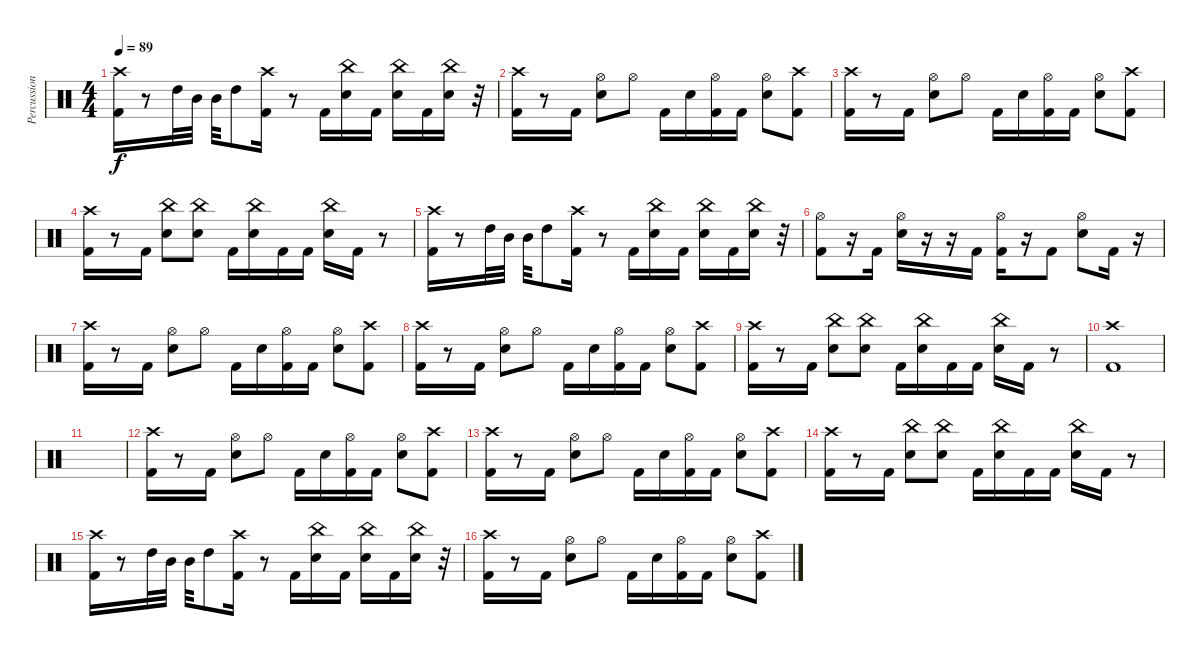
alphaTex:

\track ("Percussion" "Percussion") {instrument percussion}
\staff {score}
\articulation defaults
\ts (4 4)
\tempo 89
\clef neutral
\ks c
("Crash high (hit)" "Kick (hit) 2").16{dy f} r.8 "High Tom (hit)".32 "Mid Tom (hit)".32 "Mid Tom (hit)".32 "High Tom (hit)".8 ("Crash high (hit)" "Kick (hit) 2").16 r.8 "Kick (hit) 2".16 ("China (hit)" "Electric Snare (hit)").16 "Kick (hit) 2".16 ("China (hit)" "Electric Snare (hit)").16 "Kick (hit) 2".16 ("China (hit)" "Electric Snare (hit)").16 r.32 |
("Crash high (hit)" "Kick (hit) 2").16 r.8 "Kick (hit) 2".16 ("Hi-Hat (open)" "Electric Snare (hit)").8 "Hi-Hat (open)".8 "Kick (hit) 2".16 "Electric Snare (hit)".16 ("Hi-Hat (open)" "Kick (hit) 2").16 "Kick (hit) 2".16 ("Hi-Hat (open)" "Electric Snare (hit)").8 ("Crash high (hit)" "Kick (hit) 2").8 |
("Crash high (hit)" "Kick (hit) 2").16 r.8 "Kick (hit) 2".16 ("Hi-Hat (open)" "Electric Snare (hit)").8 "Hi-Hat (open)".8 "Kick (hit) 2".16 "Electric Snare (hit)".16 ("Hi-Hat (open)" "Kick (hit) 2").16 "Kick (hit) 2".16 ("Hi-Hat (open)" "Electric Snare (hit)").8 ("Crash high (hit)" "Kick (hit) 2").8 |
("Crash high (hit)" "Kick (hit) 2").16 r.8 "Kick (hit) 2".16 ("China (hit)" "Electric Snare (hit)").8 ("China (hit)" "Electric Snare (hit)").8 "Kick (hit) 2".16 ("China (hit)" "Electric Snare (hit)").16 "Kick (hit) 2".16 "Kick (hit) 2".16 ("China (hit)" "Electric Snare (hit)").16 "Kick (hit) 2".16 r.8 |
("Crash high (hit)" "Kick (hit) 2").16 r.8 "High Tom (hit)".32 "Mid Tom (hit)".32 "Mid Tom (hit)".32 "High Tom (hit)".8 ("Crash high (hit)" "Kick (hit) 2").16 r.8 "Kick (hit) 2".16 ("China (hit)" "Electric Snare (hit)").16 "Kick (hit) 2".16 ("China (hit)" "Electric Snare (hit)").16 "Kick (hit) 2".16 ("China (hit)" "Electric Snare (hit)").16 r.32 |
("Hi-Hat (open)" "Kick (hit) 2").8 r.16 "Kick (hit) 2".16 ("Hi-Hat (open)" "Electric Snare (hit)").16 r.16 r.16 "Kick (hit) 2".16 ("Hi-Hat (open)" "Kick (hit) 2").16 r.16 "Kick (hit) 2".8 ("Hi-Hat (open)" "Electric Snare (hit)").8 "Kick (hit) 2".16 r.16 |
("Crash high (hit)" "Kick (hit) 2").16 r.8 "Kick (hit) 2".16 ("Hi-Hat (open)" "Electric Snare (hit)").8 "Hi-Hat (open)".8 "Kick (hit) 2".16 "Electric Snare (hit)".16 ("Hi-Hat (open)" "Kick (hit) 2").16 "Kick (hit) 2".16 ("Hi-Hat (open)" "Electric Snare (hit)").8 ("Crash high (hit)" "Kick (hit) 2").8 |
("Crash high (hit)" "Kick (hit) 2").16 r.8 "Kick (hit) 2".16 ("Hi-Hat (open)" "Electric Snare (hit)").8 "Hi-Hat (open)".8 "Kick (hit) 2".16 "Electric Snare (hit)".16 ("Hi-Hat (open)" "Kick (hit) 2").16 "Kick (hit) 2".16 ("Hi-Hat (open)" "Electric Snare (hit)").8 ("Crash high (hit)" "Kick (hit) 2").8 |
("Crash high (hit)" "Kick (hit) 2").16 r.8 "Kick (hit) 2".16 ("China (hit)" "Electric Snare (hit)").8 ("China (hit)" "Electric Snare (hit)").8 "Kick (hit) 2".16 ("China (hit)" "Electric Snare (hit)").16 "Kick (hit) 2".16 "Kick (hit) 2".16 ("China (hit)" "Electric Snare (hit)").16 "Kick (hit) 2".16 r.8 |
("Crash high (hit)" "Kick (hit) 2").1 |
|
("Crash high (hit)" "Kick (hit) 2").16 r.8 "Kick (hit) 2".16 ("Hi-Hat (open)" "Electric Snare (hit)").8 "Hi-Hat (open)".8 "Kick (hit) 2".16 "Electric Snare (hit)".16 ("Hi-Hat (open)" "Kick (hit) 2").16 "Kick (hit) 2".16 ("Hi-Hat (open)" "Electric Snare (hit)").8 ("Crash high (hit)" "Kick (hit) 2").8 |
("Crash high (hit)" "Kick (hit) 2").16 r.8 "Kick (hit) 2".16 ("Hi-Hat (open)" "Electric Snare (hit)").8 "Hi-Hat (open)".8 "Kick (hit) 2".16 "Electric Snare (hit)".16 ("Hi-Hat (open)" "Kick (hit) 2").16 "Kick (hit) 2".16 ("Hi-Hat (open)" "Electric Snare (hit)").8 ("Crash high (hit)" "Kick (hit) 2").8 |
("Crash high (hit)" "Kick (hit) 2").16 r.8 "Kick (hit) 2".16 ("China (hit)" "Electric Snare (hit)").8 ("China (hit)" "Electric Snare (hit)").8 "Kick (hit) 2".16 ("China (hit)" "Electric Snare (hit)").16 "Kick (hit) 2".16 "Kick (hit) 2".16 ("China (hit)" "Electric Snare (hit)").16 "Kick (hit) 2".16 r.8 |
("Crash high (hit)" "Kick (hit) 2").16 r.8 "High Tom (hit)".32 "Mid Tom (hit)".32 "Mid Tom (hit)".32 "High Tom (hit)".8 ("Crash high (hit)" "Kick (hit) 2").16 r.8 "Kick (hit) 2".16 ("China (hit)" "Electric Snare (hit)").16 "Kick (hit) 2".16 ("China (hit)" "Electric Snare (hit)").16 "Kick (hit) 2".16 ("China (hit)" "Electric Snare (hit)").16 r.32 |
("Crash high (hit)" "Kick (hit) 2").16 r.8 "Kick (hit) 2".16 ("Hi-Hat (open)" "Electric Snare (hit)").8 "Hi-Hat (open)".8 "Kick (hit) 2".16 "Electric Snare (hit)".16 ("Hi-Hat (open)" "Kick (hit) 2").16 "Kick (hit) 2".16 ("Hi-Hat (open)" "Electric Snare (hit)").8 ("Crash high (hit)" "Kick (hit) 2").8
